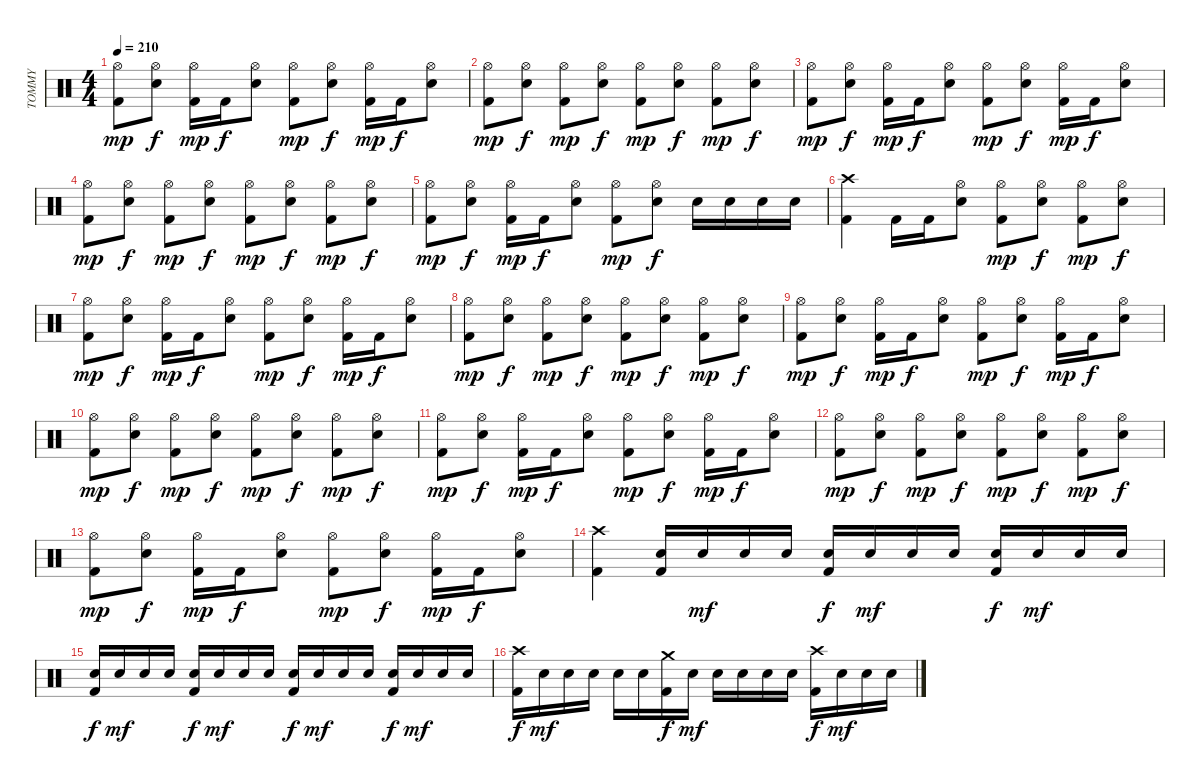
\track ("TOMMY" "TOMMY") {instrument percussion}
\staff {score}
\articulation defaults
\ts (4 4)
\tempo 210
\clef neutral
\ks c
("Kick (hit) 2" "Hi-Hat (open)").8{dy mp} ("Snare (hit) 2" "Hi-Hat (open)").8{dy f} ("Kick (hit) 2" "Hi-Hat (open)").16{dy mp} "Kick (hit) 2".16{dy f} ("Snare (hit) 2" "Hi-Hat (open)").8 ("Kick (hit) 2" "Hi-Hat (open)").8{dy mp} ("Snare (hit) 2" "Hi-Hat (open)").8{dy f} ("Kick (hit) 2" "Hi-Hat (open)").16{dy mp} "Kick (hit) 2".16{dy f} ("Snare (hit) 2" "Hi-Hat (open)").8 |
("Kick (hit) 2" "Hi-Hat (open)").8{dy mp} ("Snare (hit) 2" "Hi-Hat (open)").8{dy f} ("Kick (hit) 2" "Hi-Hat (open)").8{dy mp} ("Snare (hit) 2" "Hi-Hat (open)").8{dy f} ("Kick (hit) 2" "Hi-Hat (open)").8{dy mp} ("Snare (hit) 2" "Hi-Hat (open)").8{dy f} ("Kick (hit) 2" "Hi-Hat (open)").8{dy mp} ("Snare (hit) 2" "Hi-Hat (open)").8{dy f} |
("Kick (hit) 2" "Hi-Hat (open)").8{dy mp} ("Snare (hit) 2" "Hi-Hat (open)").8{dy f} ("Kick (hit) 2" "Hi-Hat (open)").16{dy mp} "Kick (hit) 2".16{dy f} ("Snare (hit) 2" "Hi-Hat (open)").8 ("Kick (hit) 2" "Hi-Hat (open)").8{dy mp} ("Snare (hit) 2" "Hi-Hat (open)").8{dy f} ("Kick (hit) 2" "Hi-Hat (open)").16{dy mp} "Kick (hit) 2".16{dy f} ("Snare (hit) 2" "Hi-Hat (open)").8 |
("Kick (hit) 2" "Hi-Hat (open)").8{dy mp} ("Snare (hit) 2" "Hi-Hat (open)").8{dy f} ("Kick (hit) 2" "Hi-Hat (open)").8{dy mp} ("Snare (hit) 2" "Hi-Hat (open)").8{dy f} ("Kick (hit) 2" "Hi-Hat (open)").8{dy mp} ("Snare (hit) 2" "Hi-Hat (open)").8{dy f} ("Kick (hit) 2" "Hi-Hat (open)").8{dy mp} ("Snare (hit) 2" "Hi-Hat (open)").8{dy f} |
("Kick (hit) 2" "Hi-Hat (open)").8{dy mp} ("Snare (hit) 2" "Hi-Hat (open)").8{dy f} ("Kick (hit) 2" "Hi-Hat (open)").16{dy mp} "Kick (hit) 2".16{dy f} ("Snare (hit) 2" "Hi-Hat (open)").8 ("Kick (hit) 2" "Hi-Hat (open)").8{dy mp} ("Snare (hit) 2" "Hi-Hat (open)").8{dy f} "Snare (hit) 2".16 "Snare (hit) 2".16 "Snare (hit) 2".16 "Snare (hit) 2".16 |
("Kick (hit) 2" "Crash high (hit)").4 "Kick (hit) 2".16 "Kick (hit) 2".16 ("Snare (hit) 2" "Hi-Hat (open)").8 ("Kick (hit) 2" "Hi-Hat (open)").8{dy mp} ("Snare (hit) 2" "Hi-Hat (open)").8{dy f} ("Kick (hit) 2" "Hi-Hat (open)").8{dy mp} ("Snare (hit) 2" "Hi-Hat (open)").8{dy f} |
("Kick (hit) 2" "Hi-Hat (open)").8{dy mp} ("Snare (hit) 2" "Hi-Hat (open)").8{dy f} ("Kick (hit) 2" "Hi-Hat (open)").16{dy mp} "Kick (hit) 2".16{dy f} ("Snare (hit) 2" "Hi-Hat (open)").8 ("Kick (hit) 2" "Hi-Hat (open)").8{dy mp} ("Snare (hit) 2" "Hi-Hat (open)").8{dy f} ("Kick (hit) 2" "Hi-Hat (open)").16{dy mp} "Kick (hit) 2".16{dy f} ("Snare (hit) 2" "Hi-Hat (open)").8 |
("Kick (hit) 2" "Hi-Hat (open)").8{dy mp} ("Snare (hit) 2" "Hi-Hat (open)").8{dy f} ("Kick (hit) 2" "Hi-Hat (open)").8{dy mp} ("Snare (hit) 2" "Hi-Hat (open)").8{dy f} ("Kick (hit) 2" "Hi-Hat (open)").8{dy mp} ("Snare (hit) 2" "Hi-Hat (open)").8{dy f} ("Kick (hit) 2" "Hi-Hat (open)").8{dy mp} ("Snare (hit) 2" "Hi-Hat (open)").8{dy f} |
("Kick (hit) 2" "Hi-Hat (open)").8{dy mp} ("Snare (hit) 2" "Hi-Hat (open)").8{dy f} ("Kick (hit) 2" "Hi-Hat (open)").16{dy mp} "Kick (hit) 2".16{dy f} ("Snare (hit) 2" "Hi-Hat (open)").8 ("Kick (hit) 2" "Hi-Hat (open)").8{dy mp} ("Snare (hit) 2" "Hi-Hat (open)").8{dy f} ("Kick (hit) 2" "Hi-Hat (open)").16{dy mp} "Kick (hit) 2".16{dy f} ("Snare (hit) 2" "Hi-Hat (open)").8 |
("Kick (hit) 2" "Hi-Hat (open)").8{dy mp} ("Snare (hit) 2" "Hi-Hat (open)").8{dy f} ("Kick (hit) 2" "Hi-Hat (open)").8{dy mp} ("Snare (hit) 2" "Hi-Hat (open)").8{dy f} ("Kick (hit) 2" "Hi-Hat (open)").8{dy mp} ("Snare (hit) 2" "Hi-Hat (open)").8{dy f} ("Kick (hit) 2" "Hi-Hat (open)").8{dy mp} ("Snare (hit) 2" "Hi-Hat (open)").8{dy f} |
("Kick (hit) 2" "Hi-Hat (open)").8{dy mp} ("Snare (hit) 2" "Hi-Hat (open)").8{dy f} ("Kick (hit) 2" "Hi-Hat (open)").16{dy mp} "Kick (hit) 2".16{dy f} ("Snare (hit) 2" "Hi-Hat (open)").8 ("Kick (hit) 2" "Hi-Hat (open)").8{dy mp} ("Snare (hit) 2" "Hi-Hat (open)").8{dy f} ("Kick (hit) 2" "Hi-Hat (open)").16{dy mp} "Kick (hit) 2".16{dy f} ("Snare (hit) 2" "Hi-Hat (open)").8 |
("Kick (hit) 2" "Hi-Hat (open)").8{dy mp} ("Snare (hit) 2" "Hi-Hat (open)").8{dy f} ("Kick (hit) 2" "Hi-Hat (open)").8{dy mp} ("Snare (hit) 2" "Hi-Hat (open)").8{dy f} ("Kick (hit) 2" "Hi-Hat (open)").8{dy mp} ("Snare (hit) 2" "Hi-Hat (open)").8{dy f} ("Kick (hit) 2" "Hi-Hat (open)").8{dy mp} ("Snare (hit) 2" "Hi-Hat (open)").8{dy f} |
("Kick (hit) 2" "Hi-Hat (open)").8{dy mp} ("Snare (hit) 2" "Hi-Hat (open)").8{dy f} ("Kick (hit) 2" "Hi-Hat (open)").16{dy mp} "Kick (hit) 2".16{dy f} ("Snare (hit) 2" "Hi-Hat (open)").8 ("Kick (hit) 2" "Hi-Hat (open)").8{dy mp} ("Snare (hit) 2" "Hi-Hat (open)").8{dy f} ("Kick (hit) 2" "Hi-Hat (open)").16{dy mp} "Kick (hit) 2".16{dy f} ("Snare (hit) 2" "Hi-Hat (open)").8 |
("Kick (hit) 2" "Crash high (hit)").4 ("Snare (hit) 2" "Kick (hit) 2").16 "Snare (hit) 2".16{dy mf} "Snare (hit) 2".16 "Snare (hit) 2".16 ("Snare (hit) 2" "Kick (hit) 2").16{dy f} "Snare (hit) 2".16{dy mf} "Snare (hit) 2".16 "Snare (hit) 2".16 ("Snare (hit) 2" "Kick (hit) 2").16{dy f} "Snare (hit) 2".16{dy mf} "Snare (hit) 2".16 "Snare (hit) 2".16 |
("Snare (hit) 2" "Kick (hit) 2").16{dy f} "Snare (hit) 2".16{dy mf} "Snare (hit) 2".16 "Snare (hit) 2".16 ("Snare (hit) 2" "Kick (hit) 2").16{dy f} "Snare (hit) 2".16{dy mf} "Snare (hit) 2".16 "Snare (hit) 2".16 ("Snare (hit) 2" "Kick (hit) 2").16{dy f} "Snare (hit) 2".16{dy mf} "Snare (hit) 2".16 "Snare (hit) 2".16 ("Snare (hit) 2" "Kick (hit) 2").16{dy f} "Snare (hit) 2".16{dy mf} "Snare (hit) 2".16 "Snare (hit) 2".16 |
("Kick (hit) 2" "Crash high (hit)").16{dy f} "Snare (hit) 2".16{dy mf} "Snare (hit) 2".16 "Snare (hit) 2".16 "Snare (hit) 2".16 "Snare (hit) 2".16 ("Kick (hit) 2" "Crash medium (hit)").16{dy f} "Snare (hit) 2".16{dy mf} "Snare (hit) 2".16 "Snare (hit) 2".16 "Snare (hit) 2".16 "Snare (hit) 2".16 ("Kick (hit) 2" "Crash high (hit)").16{dy f} "Snare (hit) 2".16{dy mf} "Snare (hit) 2".16 "Snare (hit) 2".16
